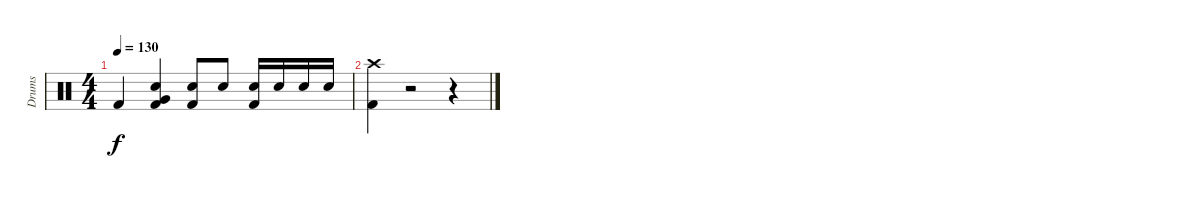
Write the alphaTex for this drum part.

\track ("Drums" "Drums") {instrument percussion}
\staff {score}
\articulation defaults
\ts (4 4)
\tempo 130
\clef neutral
\ks c "Kick (hit) 2".4{dy f}
("Electric Snare (hit)" "Very Low Tom (hit)" "Kick (hit) 2").4 ("Electric Snare (hit)" "Kick (hit) 2").8 "Electric Snare (hit)".8 ("Electric Snare (hit)" "Kick (hit) 2").16 "Electric Snare (hit)".16 "Electric Snare (hit)".16 "Electric Snare (hit)".16 |
("Crash high (hit)" "Kick (hit) 2").4 r.2 r.4
